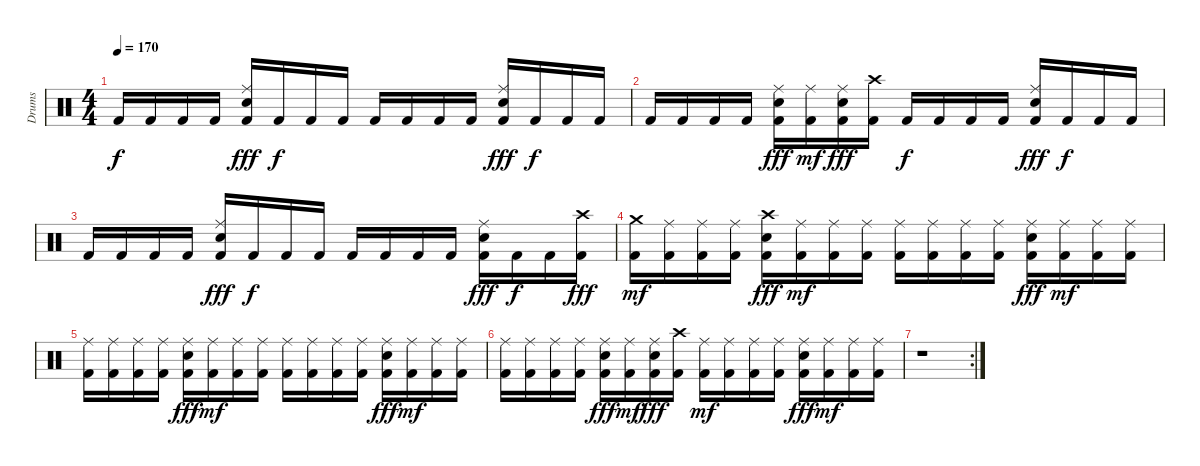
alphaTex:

\track ("Drums" "Drums") {instrument percussion}
\staff {score}
\articulation defaults
\ts (4 4)
\tempo 170
\clef neutral
\ks c "Kick (hit) 2".16{dy f} "Kick (hit) 2".16 "Kick (hit) 2".16 "Kick (hit) 2".16
("Ride (middle)" "Snare (hit) 2" "Kick (hit) 2").16{dy fff} "Kick (hit) 2".16{dy f} "Kick (hit) 2".16 "Kick (hit) 2".16 "Kick (hit) 2".16 "Kick (hit) 2".16 "Kick (hit) 2".16 "Kick (hit) 2".16 ("Ride (middle)" "Snare (hit) 2" "Kick (hit) 2").16{dy fff} "Kick (hit) 2".16{dy f} "Kick (hit) 2".16 "Kick (hit) 2".16 |
"Kick (hit) 2".16 "Kick (hit) 2".16 "Kick (hit) 2".16 "Kick (hit) 2".16 ("Ride (middle)" "Snare (hit) 2" "Kick (hit) 2").16{dy fff} ("Ride (middle)" "Kick (hit) 2").16{dy mf} ("Ride (middle)" "Snare (hit) 2" "Kick (hit) 2").16{dy fff} ("Crash high (hit)" "Kick (hit) 2").16 "Kick (hit) 2".16{dy f} "Kick (hit) 2".16 "Kick (hit) 2".16 "Kick (hit) 2".16 ("Ride (middle)" "Snare (hit) 2" "Kick (hit) 2").16{dy fff} "Kick (hit) 2".16{dy f} "Kick (hit) 2".16 "Kick (hit) 2".16 |
"Kick (hit) 2".16 "Kick (hit) 2".16 "Kick (hit) 2".16 "Kick (hit) 2".16 ("Ride (middle)" "Snare (hit) 2" "Kick (hit) 2").16{dy fff} "Kick (hit) 2".16{dy f} "Kick (hit) 2".16 "Kick (hit) 2".16 "Kick (hit) 2".16 "Kick (hit) 2".16 "Kick (hit) 2".16 "Kick (hit) 2".16 ("Ride (middle)" "Snare (hit) 2" "Kick (hit) 2").16{dy fff} "Kick (hit) 2".16{dy f} "Kick (hit) 2".16 ("Crash high (hit)" "Kick (hit) 2").16{dy fff} |
("Crash medium (hit)" "Kick (hit) 2").16{dy mf} ("Ride (middle)" "Kick (hit) 2").16 ("Ride (middle)" "Kick (hit) 2").16 ("Ride (middle)" "Kick (hit) 2").16 ("Crash high (hit)" "Snare (hit) 2" "Kick (hit) 2").16{dy fff} ("Ride (middle)" "Kick (hit) 2").16{dy mf} ("Ride (middle)" "Kick (hit) 2").16 ("Ride (middle)" "Kick (hit) 2").16 ("Ride (middle)" "Kick (hit) 2").16 ("Ride (middle)" "Kick (hit) 2").16 ("Ride (middle)" "Kick (hit) 2").16 ("Ride (middle)" "Kick (hit) 2").16 ("Ride (middle)" "Snare (hit) 2" "Kick (hit) 2").16{dy fff} ("Ride (middle)" "Kick (hit) 2").16{dy mf} ("Ride (middle)" "Kick (hit) 2").16 ("Ride (middle)" "Kick (hit) 2").16 |
("Ride (middle)" "Kick (hit) 2").16 ("Ride (middle)" "Kick (hit) 2").16 ("Ride (middle)" "Kick (hit) 2").16 ("Ride (middle)" "Kick (hit) 2").16 ("Ride (middle)" "Snare (hit) 2" "Kick (hit) 2").16{dy fff} ("Ride (middle)" "Kick (hit) 2").16{dy mf} ("Ride (middle)" "Kick (hit) 2").16 ("Ride (middle)" "Kick (hit) 2").16 ("Ride (middle)" "Kick (hit) 2").16 ("Ride (middle)" "Kick (hit) 2").16 ("Ride (middle)" "Kick (hit) 2").16 ("Ride (middle)" "Kick (hit) 2").16 ("Ride (middle)" "Snare (hit) 2" "Kick (hit) 2").16{dy fff} ("Ride (middle)" "Kick (hit) 2").16{dy mf} ("Ride (middle)" "Kick (hit) 2").16 ("Ride (middle)" "Kick (hit) 2").16 |
("Ride (middle)" "Kick (hit) 2").16 ("Ride (middle)" "Kick (hit) 2").16 ("Ride (middle)" "Kick (hit) 2").16 ("Ride (middle)" "Kick (hit) 2").16 ("Ride (middle)" "Snare (hit) 2" "Kick (hit) 2").16{dy fff} ("Ride (middle)" "Kick (hit) 2").16{dy mf} ("Ride (middle)" "Snare (hit) 2" "Kick (hit) 2").16{dy fff} ("Crash high (hit)" "Kick (hit) 2").16 ("Ride (middle)" "Kick (hit) 2").16{dy mf} ("Ride (middle)" "Kick (hit) 2").16 ("Ride (middle)" "Kick (hit) 2").16 ("Ride (middle)" "Kick (hit) 2").16 ("Ride (middle)" "Snare (hit) 2" "Kick (hit) 2").16{dy fff} ("Ride (middle)" "Kick (hit) 2").16{dy mf} ("Ride (middle)" "Kick (hit) 2").16 ("Ride (middle)" "Kick (hit) 2").16 |
\rc 2
r.1
